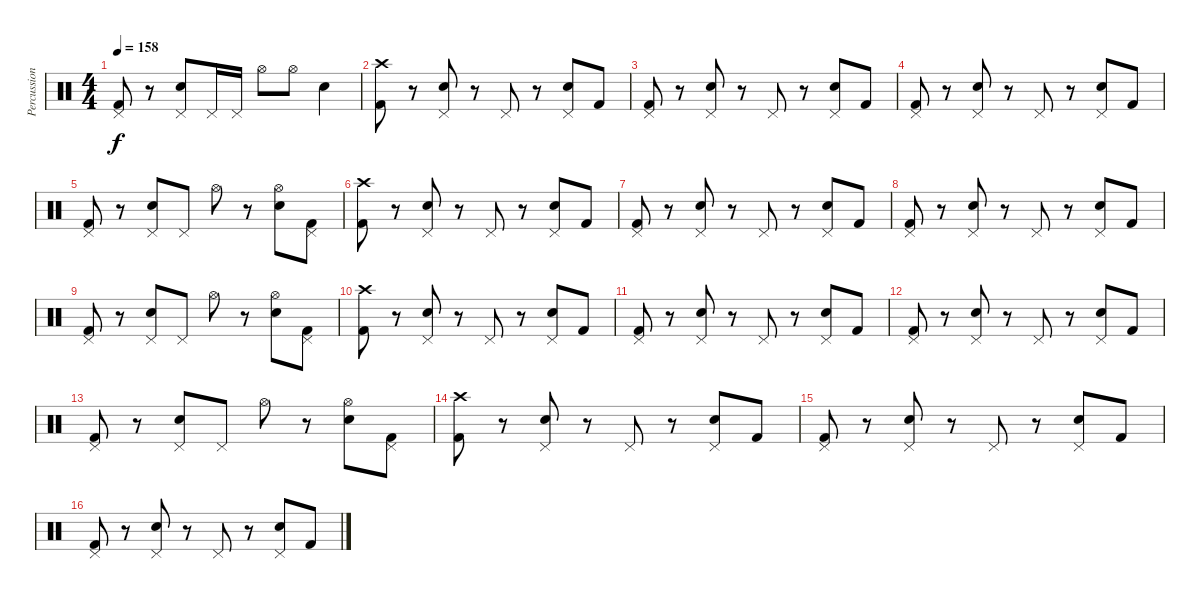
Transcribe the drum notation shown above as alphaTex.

\track ("Percussion" "Percussion") {instrument percussion bank 78}
\staff {score}
\articulation defaults
\ts (4 4)
\tempo 158
\clef neutral
\ks c
("Pedal Hi-Hat (hit)" "Kick (hit) 2").8{dy f} r.8 ("Pedal Hi-Hat (hit)" "Electric Snare (hit)").8 "Pedal Hi-Hat (hit)".16 "Pedal Hi-Hat (hit)".16 "Hi-Hat (open)".8 "Hi-Hat (open)".8 "Electric Snare (hit)".4 |
("Crash high (hit)" "Kick (hit) 2").8 r.8 ("Pedal Hi-Hat (hit)" "Electric Snare (hit)").8 r.8 "Pedal Hi-Hat (hit)".8 r.8 ("Pedal Hi-Hat (hit)" "Electric Snare (hit)").8 "Kick (hit) 2".8 |
("Pedal Hi-Hat (hit)" "Kick (hit) 2").8 r.8 ("Pedal Hi-Hat (hit)" "Electric Snare (hit)").8 r.8 "Pedal Hi-Hat (hit)".8 r.8 ("Pedal Hi-Hat (hit)" "Electric Snare (hit)").8 "Kick (hit) 2".8 |
("Pedal Hi-Hat (hit)" "Kick (hit) 2").8 r.8 ("Pedal Hi-Hat (hit)" "Electric Snare (hit)").8 r.8 "Pedal Hi-Hat (hit)".8 r.8 ("Pedal Hi-Hat (hit)" "Electric Snare (hit)").8 "Kick (hit) 2".8 |
("Pedal Hi-Hat (hit)" "Kick (hit) 2").8 r.8 ("Pedal Hi-Hat (hit)" "Electric Snare (hit)").8 "Pedal Hi-Hat (hit)".8 "Hi-Hat (open)".8 r.8 ("Hi-Hat (open)" "Electric Snare (hit)").8 ("Pedal Hi-Hat (hit)" "Kick (hit) 2").8 |
("Crash high (hit)" "Kick (hit) 2").8 r.8 ("Pedal Hi-Hat (hit)" "Electric Snare (hit)").8 r.8 "Pedal Hi-Hat (hit)".8 r.8 ("Pedal Hi-Hat (hit)" "Electric Snare (hit)").8 "Kick (hit) 2".8 |
("Pedal Hi-Hat (hit)" "Kick (hit) 2").8 r.8 ("Pedal Hi-Hat (hit)" "Electric Snare (hit)").8 r.8 "Pedal Hi-Hat (hit)".8 r.8 ("Pedal Hi-Hat (hit)" "Electric Snare (hit)").8 "Kick (hit) 2".8 |
("Pedal Hi-Hat (hit)" "Kick (hit) 2").8 r.8 ("Pedal Hi-Hat (hit)" "Electric Snare (hit)").8 r.8 "Pedal Hi-Hat (hit)".8 r.8 ("Pedal Hi-Hat (hit)" "Electric Snare (hit)").8 "Kick (hit) 2".8 |
("Pedal Hi-Hat (hit)" "Kick (hit) 2").8 r.8 ("Pedal Hi-Hat (hit)" "Electric Snare (hit)").8 "Pedal Hi-Hat (hit)".8 "Hi-Hat (open)".8 r.8 ("Hi-Hat (open)" "Electric Snare (hit)").8 ("Pedal Hi-Hat (hit)" "Kick (hit) 2").8 |
("Crash high (hit)" "Kick (hit) 2").8 r.8 ("Pedal Hi-Hat (hit)" "Electric Snare (hit)").8 r.8 "Pedal Hi-Hat (hit)".8 r.8 ("Pedal Hi-Hat (hit)" "Electric Snare (hit)").8 "Kick (hit) 2".8 |
("Pedal Hi-Hat (hit)" "Kick (hit) 2").8 r.8 ("Pedal Hi-Hat (hit)" "Electric Snare (hit)").8 r.8 "Pedal Hi-Hat (hit)".8 r.8 ("Pedal Hi-Hat (hit)" "Electric Snare (hit)").8 "Kick (hit) 2".8 |
("Pedal Hi-Hat (hit)" "Kick (hit) 2").8 r.8 ("Pedal Hi-Hat (hit)" "Electric Snare (hit)").8 r.8 "Pedal Hi-Hat (hit)".8 r.8 ("Pedal Hi-Hat (hit)" "Electric Snare (hit)").8 "Kick (hit) 2".8 |
("Pedal Hi-Hat (hit)" "Kick (hit) 2").8 r.8 ("Pedal Hi-Hat (hit)" "Electric Snare (hit)").8 "Pedal Hi-Hat (hit)".8 "Hi-Hat (open)".8 r.8 ("Hi-Hat (open)" "Electric Snare (hit)").8 ("Pedal Hi-Hat (hit)" "Kick (hit) 2").8 |
("Crash high (hit)" "Kick (hit) 2").8 r.8 ("Pedal Hi-Hat (hit)" "Electric Snare (hit)").8 r.8 "Pedal Hi-Hat (hit)".8 r.8 ("Pedal Hi-Hat (hit)" "Electric Snare (hit)").8 "Kick (hit) 2".8 |
("Pedal Hi-Hat (hit)" "Kick (hit) 2").8 r.8 ("Pedal Hi-Hat (hit)" "Electric Snare (hit)").8 r.8 "Pedal Hi-Hat (hit)".8 r.8 ("Pedal Hi-Hat (hit)" "Electric Snare (hit)").8 "Kick (hit) 2".8 |
("Pedal Hi-Hat (hit)" "Kick (hit) 2").8 r.8 ("Pedal Hi-Hat (hit)" "Electric Snare (hit)").8 r.8 "Pedal Hi-Hat (hit)".8 r.8 ("Pedal Hi-Hat (hit)" "Electric Snare (hit)").8 "Kick (hit) 2".8
